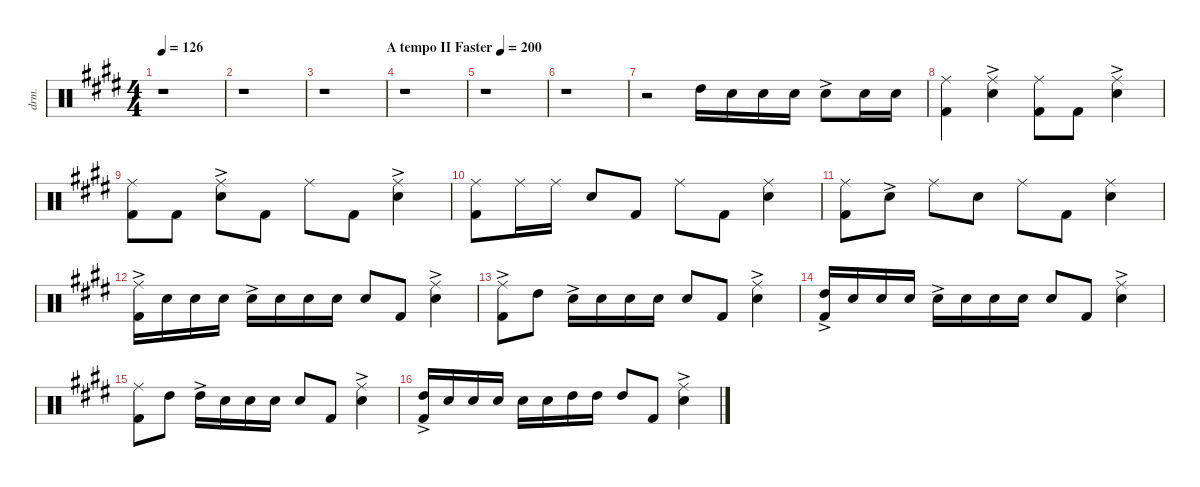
\defaultSystemsLayout 4
\hideDynamics
\bracketExtendMode nobrackets
\otherSystemsTrackNameOrientation horizontal
\track ("Mitch" "drm.") {instrument percussion}
\staff {score}
\articulation defaults
\ts (4 4)
\tempo 126
\clef neutral
\ks e
r.1{dy f beam Down} |
r.1{beam Down} |
\tempo (200 "A tempo II Faster" 1)
r.1{beam Down} |
r.1{beam Down} |
r.1{beam Down} |
r.1{beam Down} |
r.2{beam Down} "High Tom (hit)"{acc forcenatural}.16{dy ff beam Down} "Snare (hit) 2"{acc forcenatural}.16{beam Down} "Snare (hit) 2"{acc forcenatural}.16{beam Down} "Snare (hit) 2"{acc forcenatural}.16{beam Down} "Snare (hit) 2"{ac acc forcenatural}.8{beam Down} "Snare (hit) 2"{acc forcenatural}.16{beam Down} "Snare (hit) 2"{acc forcenatural}.16{beam Down} |
("Ride (middle)"{acc forcenatural} "Kick (hit) 2"{acc forcenatural}).4{beam Down} ("Ride (middle)"{acc forcenatural} "Snare (hit) 2"{ac acc forcenatural}).4{beam Down} ("Ride (middle)"{acc forcenatural} "Kick (hit) 2"{acc forcenatural}).8{beam Down} "Kick (hit) 2"{acc forcenatural}.8{beam Down} ("Ride (middle)"{acc forcenatural} "Snare (hit) 2"{ac acc forcenatural}).4{beam Down} |
("Ride (middle)"{acc forcenatural} "Kick (hit) 2"{acc forcenatural}).8{beam Down} "Kick (hit) 2"{acc forcenatural}.8{beam Down} ("Ride (middle)"{acc forcenatural} "Snare (hit) 2"{ac acc forcenatural}).8{beam Down} "Kick (hit) 2"{acc forcenatural}.8{beam Down} "Ride (middle)"{acc forcenatural}.8{beam Down} "Kick (hit) 2"{acc forcenatural}.8{beam Down} ("Ride (middle)"{acc forcenatural} "Snare (hit) 2"{ac acc forcenatural}).4{beam Down} |
("Ride (middle)"{acc forcenatural} "Kick (hit) 2"{acc forcenatural}).8{beam Down} "Ride (middle)"{acc forcenatural}.16{beam Down} "Ride (middle)"{acc forcenatural}.16{beam Down} "Snare (hit) 2"{acc forcenatural}.8{beam Up} "Kick (hit) 2"{acc forcenatural}.8{beam Up} "Ride (middle)"{acc forcenatural}.8{beam Down} "Kick (hit) 2"{acc forcenatural}.8{beam Down} ("Ride (middle)"{acc forcenatural} "Snare (hit) 2"{acc forcenatural}).4{beam Down} |
("Ride (middle)"{acc forcenatural} "Kick (hit) 2"{acc forcenatural}).8{beam Down} "Snare (hit) 2"{ac acc forcenatural}.8{beam Down} "Ride (middle)"{acc forcenatural}.8{beam Down} "Snare (hit) 2"{acc forcenatural}.8{beam Down} "Ride (middle)"{acc forcenatural}.8{beam Down} "Kick (hit) 2"{acc forcenatural}.8{beam Down} ("Ride (middle)"{acc forcenatural} "Snare (hit) 2"{acc forcenatural}).4{beam Down} |
("Ride (middle)"{ac acc forcenatural} "Kick (hit) 2"{acc forcenatural}).16{beam Down} "Snare (hit) 2"{acc forcenatural}.16{beam Down} "Snare (hit) 2"{acc forcenatural}.16{beam Down} "Snare (hit) 2"{acc forcenatural}.16{beam Down} "Snare (hit) 2"{ac acc forcenatural}.16{beam Down} "Snare (hit) 2"{acc forcenatural}.16{beam Down} "Snare (hit) 2"{acc forcenatural}.16{beam Down} "Snare (hit) 2"{acc forcenatural}.16{beam Down} "Snare (hit) 2"{acc forcenatural}.8{beam Up} "Kick (hit) 2"{acc forcenatural}.8{beam Up} ("Ride (middle)"{acc forcenatural} "Snare (hit) 2"{ac acc forcenatural}).4{beam Down} |
("Ride (middle)"{ac acc forcenatural} "Kick (hit) 2"{acc forcenatural}).8{beam Down} "High Tom (hit)"{acc forcenatural}.8{beam Down} "Snare (hit) 2"{ac acc forcenatural}.16{beam Down} "Snare (hit) 2"{acc forcenatural}.16{beam Down} "Snare (hit) 2"{acc forcenatural}.16{beam Down} "Snare (hit) 2"{acc forcenatural}.16{beam Down} "Snare (hit) 2"{acc forcenatural}.8{beam Up} "Kick (hit) 2"{acc forcenatural}.8{beam Up} ("Ride (middle)"{acc forcenatural} "Snare (hit) 2"{ac acc forcenatural}).4{beam Down} |
("High Tom (hit)"{ac acc forcenatural} "Kick (hit) 2"{acc forcenatural}).16{beam Up} "Snare (hit) 2"{acc forcenatural}.16{beam Up} "Snare (hit) 2"{acc forcenatural}.16{beam Up} "Snare (hit) 2"{acc forcenatural}.16{beam Up} "Snare (hit) 2"{ac acc forcenatural}.16{beam Down} "Snare (hit) 2"{acc forcenatural}.16{beam Down} "Snare (hit) 2"{acc forcenatural}.16{beam Down} "Snare (hit) 2"{acc forcenatural}.16{beam Down} "Snare (hit) 2"{acc forcenatural}.8{beam Up} "Kick (hit) 2"{acc forcenatural}.8{beam Up} ("Ride (middle)"{acc forcenatural} "Snare (hit) 2"{ac acc forcenatural}).4{beam Down} |
("Ride (middle)"{acc forcenatural} "Kick (hit) 2"{acc forcenatural}).8{beam Down} "High Tom (hit)"{acc forcenatural}.8{beam Down} "High Tom (hit)"{ac acc forcenatural}.16{beam Down} "Snare (hit) 2"{acc forcenatural}.16{beam Down} "Snare (hit) 2"{acc forcenatural}.16{beam Down} "Snare (hit) 2"{acc forcenatural}.16{beam Down} "Snare (hit) 2"{acc forcenatural}.8{beam Up} "Kick (hit) 2"{acc forcenatural}.8{beam Up} ("Ride (middle)"{acc forcenatural} "Snare (hit) 2"{ac acc forcenatural}).4{beam Down} |
("High Tom (hit)"{ac acc forcenatural} "Kick (hit) 2"{acc forcenatural}).16{beam Up} "Snare (hit) 2"{acc forcenatural}.16{beam Up} "Snare (hit) 2"{acc forcenatural}.16{beam Up} "Snare (hit) 2"{acc forcenatural}.16{beam Up} "Snare (hit) 2"{acc forcenatural}.16{beam Down} "Snare (hit) 2"{acc forcenatural}.16{beam Down} "High Tom (hit)"{acc forcenatural}.16{beam Down} "High Tom (hit)"{acc forcenatural}.16{beam Down} "High Tom (hit)"{acc forcenatural}.8{beam Up} "Kick (hit) 2"{acc forcenatural}.8{beam Up} ("Ride (middle)"{acc forcenatural} "Snare (hit) 2"{ac acc forcenatural}).4{beam Down}
